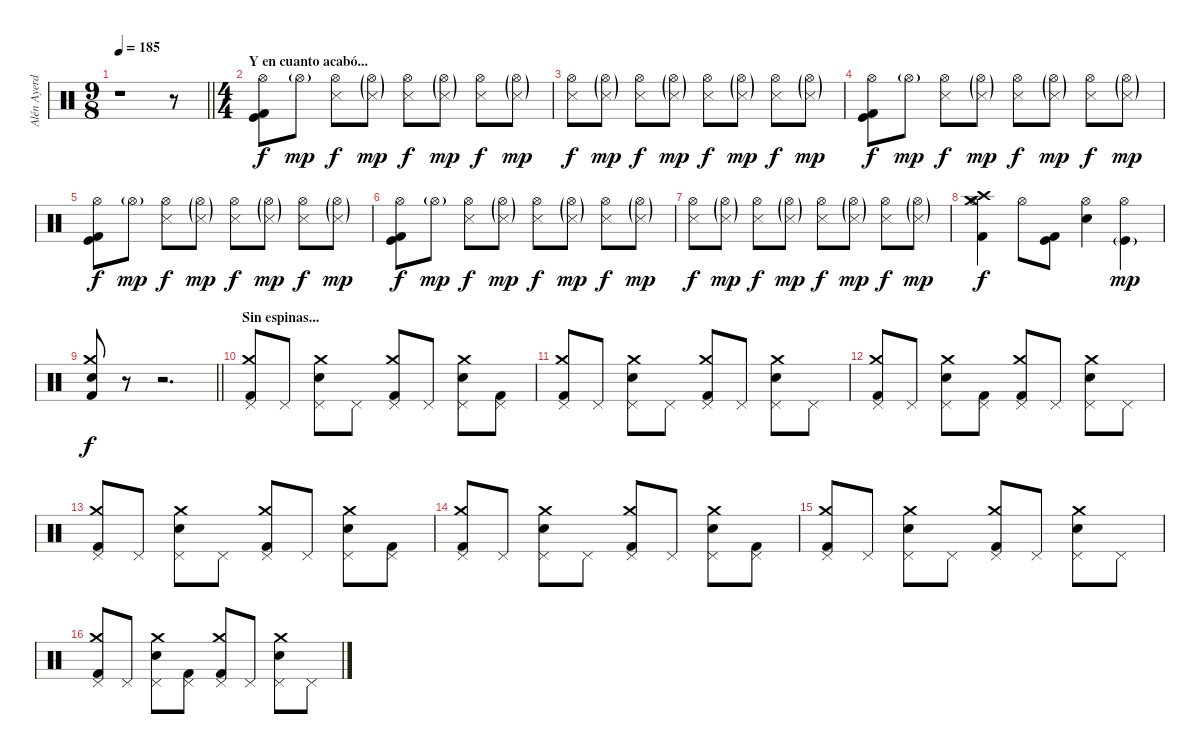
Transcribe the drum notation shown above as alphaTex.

\track ("Alén Ayerdi - Batería" "Alén Ayerd") {instrument percussion}
\staff {score}
\articulation defaults
\ts (9 8)
\tempo 185
\clef neutral
\barLineRight lightlight
\ks c
r.1{dy f} r.8 |
\ts (4 4)
\section ("" "Y en cuanto acabó...")
("Hi-Hat (open)" "Kick (hit)" "Kick (hit) 2").8 "Hi-Hat (open)"{g}.8{dy mp} ("Hi-Hat (open)" "Snare (side stick) 3").8{dy f} ("Hi-Hat (open)"{g} "Metronome (hit)"{g}).8{dy mp} ("Hi-Hat (open)" "Snare (side stick) 3").8{dy f} ("Hi-Hat (open)"{g} "Metronome (hit)"{g}).8{dy mp} ("Hi-Hat (open)" "Snare (side stick) 3").8{dy f} ("Hi-Hat (open)"{g} "Metronome (hit)"{g}).8{dy mp} |
("Hi-Hat (open)" "Snare (side stick) 3").8{dy f} ("Hi-Hat (open)"{g} "Metronome (hit)"{g}).8{dy mp} ("Hi-Hat (open)" "Snare (side stick) 3").8{dy f} ("Hi-Hat (open)"{g} "Metronome (hit)"{g}).8{dy mp} ("Hi-Hat (open)" "Snare (side stick) 3").8{dy f} ("Hi-Hat (open)"{g} "Metronome (hit)"{g}).8{dy mp} ("Hi-Hat (open)" "Snare (side stick) 3").8{dy f} ("Hi-Hat (open)"{g} "Metronome (hit)"{g}).8{dy mp} |
("Hi-Hat (open)" "Kick (hit)" "Kick (hit) 2").8{dy f} "Hi-Hat (open)"{g}.8{dy mp} ("Hi-Hat (open)" "Snare (side stick) 3").8{dy f} ("Hi-Hat (open)"{g} "Metronome (hit)"{g}).8{dy mp} ("Hi-Hat (open)" "Snare (side stick) 3").8{dy f} ("Hi-Hat (open)"{g} "Metronome (hit)"{g}).8{dy mp} ("Hi-Hat (open)" "Snare (side stick) 3").8{dy f} ("Hi-Hat (open)"{g} "Metronome (hit)"{g}).8{dy mp} |
("Hi-Hat (open)" "Kick (hit)" "Kick (hit) 2").8{dy f} "Hi-Hat (open)"{g}.8{dy mp} ("Hi-Hat (open)" "Snare (side stick) 3").8{dy f} ("Hi-Hat (open)"{g} "Metronome (hit)"{g}).8{dy mp} ("Hi-Hat (open)" "Snare (side stick) 3").8{dy f} ("Hi-Hat (open)"{g} "Metronome (hit)"{g}).8{dy mp} ("Hi-Hat (open)" "Snare (side stick) 3").8{dy f} ("Hi-Hat (open)"{g} "Metronome (hit)"{g}).8{dy mp} |
("Hi-Hat (open)" "Kick (hit)" "Kick (hit) 2").8{dy f} "Hi-Hat (open)"{g}.8{dy mp} ("Hi-Hat (open)" "Snare (side stick) 3").8{dy f} ("Hi-Hat (open)"{g} "Metronome (hit)"{g}).8{dy mp} ("Hi-Hat (open)" "Snare (side stick) 3").8{dy f} ("Hi-Hat (open)"{g} "Metronome (hit)"{g}).8{dy mp} ("Hi-Hat (open)" "Snare (side stick) 3").8{dy f} ("Hi-Hat (open)"{g} "Metronome (hit)"{g}).8{dy mp} |
("Hi-Hat (open)" "Snare (side stick) 3").8{dy f} ("Hi-Hat (open)"{g} "Metronome (hit)"{g}).8{dy mp} ("Hi-Hat (open)" "Snare (side stick) 3").8{dy f} ("Hi-Hat (open)"{g} "Metronome (hit)"{g}).8{dy mp} ("Hi-Hat (open)" "Snare (side stick) 3").8{dy f} ("Hi-Hat (open)"{g} "Metronome (hit)"{g}).8{dy mp} ("Hi-Hat (open)" "Snare (side stick) 3").8{dy f} ("Hi-Hat (open)"{g} "Metronome (hit)"{g}).8{dy mp} |
("Crash medium (hit)" "Hi-Hat (open)" "Crash high (hit)" "Kick (hit) 2").4{dy f} "Hi-Hat (open)".8 ("Kick (hit)" "Kick (hit) 2").8 ("Hi-Hat (open)" "Electric Snare (hit)").4 ("Hi-Hat (open)" "Kick (hit)"{g}).4{dy mp} |
\barLineRight lightlight
("Crash medium (hit)" "Electric Snare (hit)" "Kick (hit) 2").8{dy f} r.8 r.2{d} |
\section ("" "Sin espinas...")
("Crash medium (hit)" "Pedal Hi-Hat (hit)" "Kick (hit) 2").8 "Pedal Hi-Hat (hit)".8 ("Crash medium (hit)" "Pedal Hi-Hat (hit)" "Electric Snare (hit)").8 "Pedal Hi-Hat (hit)".8 ("Crash medium (hit)" "Pedal Hi-Hat (hit)" "Kick (hit) 2").8 "Pedal Hi-Hat (hit)".8 ("Crash medium (hit)" "Pedal Hi-Hat (hit)" "Electric Snare (hit)").8 ("Pedal Hi-Hat (hit)" "Kick (hit) 2").8 |
("Crash medium (hit)" "Pedal Hi-Hat (hit)" "Kick (hit) 2").8 "Pedal Hi-Hat (hit)".8 ("Crash medium (hit)" "Pedal Hi-Hat (hit)" "Electric Snare (hit)").8 "Pedal Hi-Hat (hit)".8 ("Crash medium (hit)" "Pedal Hi-Hat (hit)" "Kick (hit) 2").8 "Pedal Hi-Hat (hit)".8 ("Crash medium (hit)" "Pedal Hi-Hat (hit)" "Electric Snare (hit)").8 "Pedal Hi-Hat (hit)".8 |
("Crash medium (hit)" "Pedal Hi-Hat (hit)" "Kick (hit) 2").8 "Pedal Hi-Hat (hit)".8 ("Crash medium (hit)" "Pedal Hi-Hat (hit)" "Electric Snare (hit)").8 ("Pedal Hi-Hat (hit)" "Kick (hit) 2").8 ("Crash medium (hit)" "Pedal Hi-Hat (hit)" "Kick (hit) 2").8 "Pedal Hi-Hat (hit)".8 ("Crash medium (hit)" "Pedal Hi-Hat (hit)" "Electric Snare (hit)").8 "Pedal Hi-Hat (hit)".8 |
("Crash medium (hit)" "Pedal Hi-Hat (hit)" "Kick (hit) 2").8 "Pedal Hi-Hat (hit)".8 ("Crash medium (hit)" "Pedal Hi-Hat (hit)" "Electric Snare (hit)").8 "Pedal Hi-Hat (hit)".8 ("Crash medium (hit)" "Pedal Hi-Hat (hit)" "Kick (hit) 2").8 "Pedal Hi-Hat (hit)".8 ("Crash medium (hit)" "Pedal Hi-Hat (hit)" "Electric Snare (hit)").8 ("Pedal Hi-Hat (hit)" "Kick (hit) 2").8 |
("Crash medium (hit)" "Pedal Hi-Hat (hit)" "Kick (hit) 2").8 "Pedal Hi-Hat (hit)".8 ("Crash medium (hit)" "Pedal Hi-Hat (hit)" "Electric Snare (hit)").8 "Pedal Hi-Hat (hit)".8 ("Crash medium (hit)" "Pedal Hi-Hat (hit)" "Kick (hit) 2").8 "Pedal Hi-Hat (hit)".8 ("Crash medium (hit)" "Pedal Hi-Hat (hit)" "Electric Snare (hit)").8 ("Pedal Hi-Hat (hit)" "Kick (hit) 2").8 |
("Crash medium (hit)" "Pedal Hi-Hat (hit)" "Kick (hit) 2").8 "Pedal Hi-Hat (hit)".8 ("Crash medium (hit)" "Pedal Hi-Hat (hit)" "Electric Snare (hit)").8 "Pedal Hi-Hat (hit)".8 ("Crash medium (hit)" "Pedal Hi-Hat (hit)" "Kick (hit) 2").8 "Pedal Hi-Hat (hit)".8 ("Crash medium (hit)" "Pedal Hi-Hat (hit)" "Electric Snare (hit)").8 "Pedal Hi-Hat (hit)".8 |
("Crash medium (hit)" "Pedal Hi-Hat (hit)" "Kick (hit) 2").8 "Pedal Hi-Hat (hit)".8 ("Crash medium (hit)" "Pedal Hi-Hat (hit)" "Electric Snare (hit)").8 ("Pedal Hi-Hat (hit)" "Kick (hit) 2").8 ("Crash medium (hit)" "Pedal Hi-Hat (hit)" "Kick (hit) 2").8 "Pedal Hi-Hat (hit)".8 ("Crash medium (hit)" "Pedal Hi-Hat (hit)" "Electric Snare (hit)").8 "Pedal Hi-Hat (hit)".8
